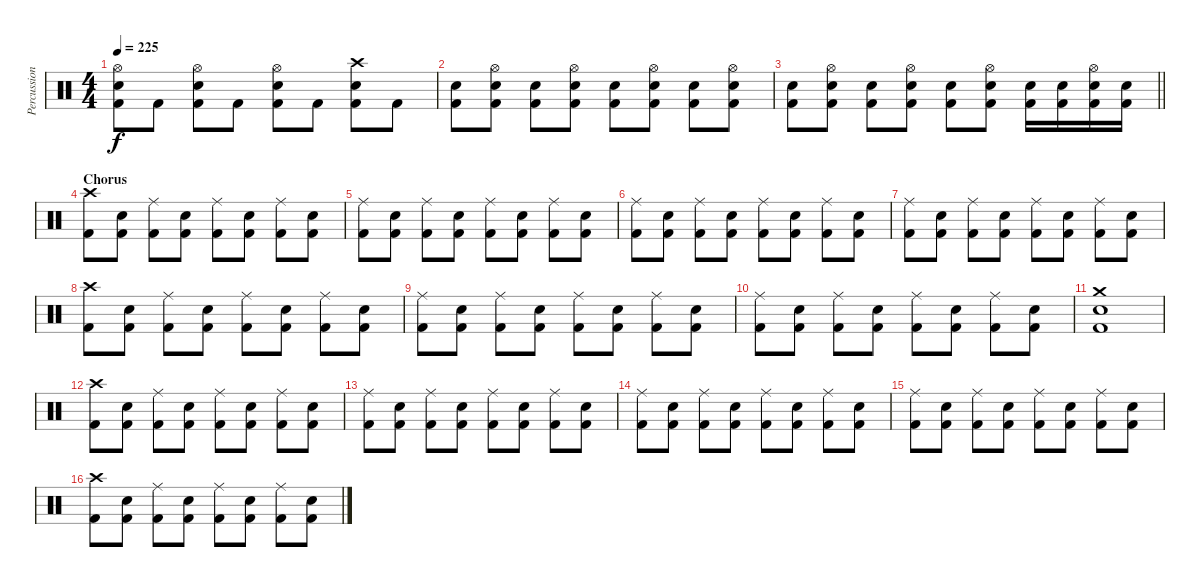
\track ("Percussion" "Percussion") {instrument percussion}
\staff {score}
\articulation defaults
\ts (4 4)
\tempo 225
\clef neutral
\ks c
("Hi-Hat (open)" "Electric Snare (hit)" "Kick (hit) 2").8{dy f} "Kick (hit) 2".8 ("Hi-Hat (open)" "Electric Snare (hit)" "Kick (hit) 2").8 "Kick (hit) 2".8 ("Hi-Hat (open)" "Electric Snare (hit)" "Kick (hit) 2").8 "Kick (hit) 2".8 ("Crash high (hit)" "Electric Snare (hit)" "Kick (hit) 2").8 "Kick (hit) 2".8 |
("Electric Snare (hit)" "Kick (hit) 2").8 ("Hi-Hat (open)" "Electric Snare (hit)" "Kick (hit) 2").8 ("Electric Snare (hit)" "Kick (hit) 2").8 ("Hi-Hat (open)" "Electric Snare (hit)" "Kick (hit) 2").8 ("Electric Snare (hit)" "Kick (hit) 2").8 ("Hi-Hat (open)" "Electric Snare (hit)" "Kick (hit) 2").8 ("Electric Snare (hit)" "Kick (hit) 2").8 ("Hi-Hat (open)" "Electric Snare (hit)" "Kick (hit) 2").8 |
\barLineRight lightlight
("Electric Snare (hit)" "Kick (hit) 2").8 ("Hi-Hat (open)" "Electric Snare (hit)" "Kick (hit) 2").8 ("Electric Snare (hit)" "Kick (hit) 2").8 ("Hi-Hat (open)" "Electric Snare (hit)" "Kick (hit) 2").8 ("Electric Snare (hit)" "Kick (hit) 2").8 ("Hi-Hat (open)" "Electric Snare (hit)" "Kick (hit) 2").8 ("Electric Snare (hit)" "Kick (hit) 2").16 ("Electric Snare (hit)" "Kick (hit) 2").16 ("Hi-Hat (open)" "Electric Snare (hit)" "Kick (hit) 2").16 ("Electric Snare (hit)" "Kick (hit) 2").16 |
\section ("" "Chorus")
("Crash high (hit)" "Kick (hit) 2").8 ("Electric Snare (hit)" "Kick (hit) 2").8 ("Ride (middle)" "Kick (hit) 2").8 ("Electric Snare (hit)" "Kick (hit) 2").8 ("Ride (middle)" "Kick (hit) 2").8 ("Electric Snare (hit)" "Kick (hit) 2").8 ("Ride (middle)" "Kick (hit) 2").8 ("Electric Snare (hit)" "Kick (hit) 2").8 |
("Ride (middle)" "Kick (hit) 2").8 ("Electric Snare (hit)" "Kick (hit) 2").8 ("Ride (middle)" "Kick (hit) 2").8 ("Electric Snare (hit)" "Kick (hit) 2").8 ("Ride (middle)" "Kick (hit) 2").8 ("Electric Snare (hit)" "Kick (hit) 2").8 ("Ride (middle)" "Kick (hit) 2").8 ("Electric Snare (hit)" "Kick (hit) 2").8 |
("Ride (middle)" "Kick (hit) 2").8 ("Electric Snare (hit)" "Kick (hit) 2").8 ("Ride (middle)" "Kick (hit) 2").8 ("Electric Snare (hit)" "Kick (hit) 2").8 ("Ride (middle)" "Kick (hit) 2").8 ("Electric Snare (hit)" "Kick (hit) 2").8 ("Ride (middle)" "Kick (hit) 2").8 ("Electric Snare (hit)" "Kick (hit) 2").8 |
("Ride (middle)" "Kick (hit) 2").8 ("Electric Snare (hit)" "Kick (hit) 2").8 ("Ride (middle)" "Kick (hit) 2").8 ("Electric Snare (hit)" "Kick (hit) 2").8 ("Ride (middle)" "Kick (hit) 2").8 ("Electric Snare (hit)" "Kick (hit) 2").8 ("Ride (middle)" "Kick (hit) 2").8 ("Electric Snare (hit)" "Kick (hit) 2").8 |
("Crash high (hit)" "Kick (hit) 2").8 ("Electric Snare (hit)" "Kick (hit) 2").8 ("Ride (middle)" "Kick (hit) 2").8 ("Electric Snare (hit)" "Kick (hit) 2").8 ("Ride (middle)" "Kick (hit) 2").8 ("Electric Snare (hit)" "Kick (hit) 2").8 ("Ride (middle)" "Kick (hit) 2").8 ("Electric Snare (hit)" "Kick (hit) 2").8 |
("Ride (middle)" "Kick (hit) 2").8 ("Electric Snare (hit)" "Kick (hit) 2").8 ("Ride (middle)" "Kick (hit) 2").8 ("Electric Snare (hit)" "Kick (hit) 2").8 ("Ride (middle)" "Kick (hit) 2").8 ("Electric Snare (hit)" "Kick (hit) 2").8 ("Ride (middle)" "Kick (hit) 2").8 ("Electric Snare (hit)" "Kick (hit) 2").8 |
("Ride (middle)" "Kick (hit) 2").8 ("Electric Snare (hit)" "Kick (hit) 2").8 ("Ride (middle)" "Kick (hit) 2").8 ("Electric Snare (hit)" "Kick (hit) 2").8 ("Ride (middle)" "Kick (hit) 2").8 ("Electric Snare (hit)" "Kick (hit) 2").8 ("Ride (middle)" "Kick (hit) 2").8 ("Electric Snare (hit)" "Kick (hit) 2").8 |
("Crash medium (hit)" "Electric Snare (hit)" "Kick (hit) 2").1 |
("Crash high (hit)" "Kick (hit) 2").8 ("Electric Snare (hit)" "Kick (hit) 2").8 ("Ride (middle)" "Kick (hit) 2").8 ("Electric Snare (hit)" "Kick (hit) 2").8 ("Ride (middle)" "Kick (hit) 2").8 ("Electric Snare (hit)" "Kick (hit) 2").8 ("Ride (middle)" "Kick (hit) 2").8 ("Electric Snare (hit)" "Kick (hit) 2").8 |
("Ride (middle)" "Kick (hit) 2").8 ("Electric Snare (hit)" "Kick (hit) 2").8 ("Ride (middle)" "Kick (hit) 2").8 ("Electric Snare (hit)" "Kick (hit) 2").8 ("Ride (middle)" "Kick (hit) 2").8 ("Electric Snare (hit)" "Kick (hit) 2").8 ("Ride (middle)" "Kick (hit) 2").8 ("Electric Snare (hit)" "Kick (hit) 2").8 |
("Ride (middle)" "Kick (hit) 2").8 ("Electric Snare (hit)" "Kick (hit) 2").8 ("Ride (middle)" "Kick (hit) 2").8 ("Electric Snare (hit)" "Kick (hit) 2").8 ("Ride (middle)" "Kick (hit) 2").8 ("Electric Snare (hit)" "Kick (hit) 2").8 ("Ride (middle)" "Kick (hit) 2").8 ("Electric Snare (hit)" "Kick (hit) 2").8 |
("Ride (middle)" "Kick (hit) 2").8 ("Electric Snare (hit)" "Kick (hit) 2").8 ("Ride (middle)" "Kick (hit) 2").8 ("Electric Snare (hit)" "Kick (hit) 2").8 ("Ride (middle)" "Kick (hit) 2").8 ("Electric Snare (hit)" "Kick (hit) 2").8 ("Ride (middle)" "Kick (hit) 2").8 ("Electric Snare (hit)" "Kick (hit) 2").8 |
("Crash high (hit)" "Kick (hit) 2").8 ("Electric Snare (hit)" "Kick (hit) 2").8 ("Ride (middle)" "Kick (hit) 2").8 ("Electric Snare (hit)" "Kick (hit) 2").8 ("Ride (middle)" "Kick (hit) 2").8 ("Electric Snare (hit)" "Kick (hit) 2").8 ("Ride (middle)" "Kick (hit) 2").8 ("Electric Snare (hit)" "Kick (hit) 2").8
